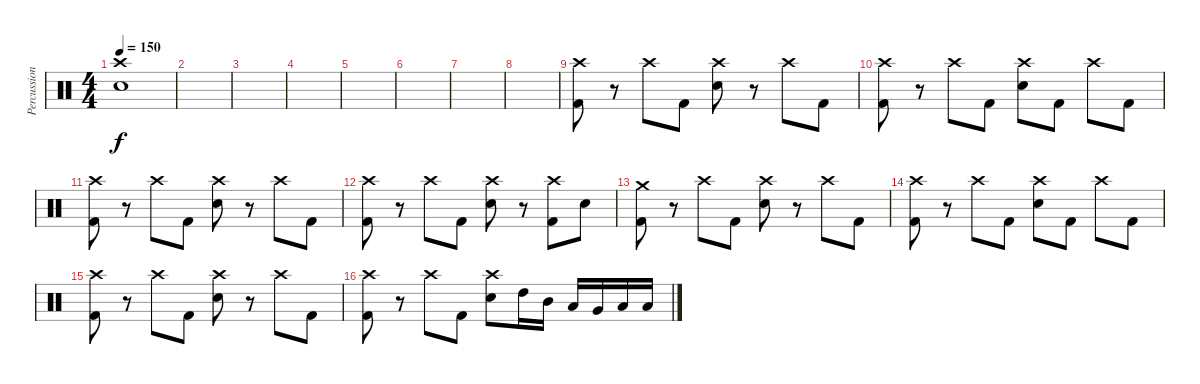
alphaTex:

\track ("Percussion" "Percussion") {instrument percussion}
\staff {score}
\articulation defaults
\ts (4 4)
\tempo 150
\clef neutral
\ks c
("Crash high (hit)" "Snare (hit) 2").1{dy f} |
|
|
|
|
|
|
|
("Crash high (hit)" "Kick (hit) 2").8 r.8 "Crash high (hit)".8 "Kick (hit) 2".8 ("Crash high (hit)" "Snare (hit) 2").8 r.8 "Crash high (hit)".8 "Kick (hit) 2".8 |
("Crash high (hit)" "Kick (hit) 2").8 r.8 "Crash high (hit)".8 "Kick (hit) 2".8 ("Crash high (hit)" "Snare (hit) 2").8 "Kick (hit) 2".8 "Crash high (hit)".8 "Kick (hit) 2".8 |
("Crash high (hit)" "Kick (hit) 2").8 r.8 "Crash high (hit)".8 "Kick (hit) 2".8 ("Crash high (hit)" "Snare (hit) 2").8 r.8 "Crash high (hit)".8 "Kick (hit) 2".8 |
("Crash high (hit)" "Kick (hit) 2").8 r.8 "Crash high (hit)".8 "Kick (hit) 2".8 ("Crash high (hit)" "Snare (hit) 2").8 r.8 ("Crash high (hit)" "Kick (hit) 2").8 "Snare (hit) 2".8 |
("Crash medium (hit)" "Kick (hit) 2").8 r.8 "Crash high (hit)".8 "Kick (hit) 2".8 ("Crash high (hit)" "Snare (hit) 2").8 r.8 "Crash high (hit)".8 "Kick (hit) 2".8 |
("Crash high (hit)" "Kick (hit) 2").8 r.8 "Crash high (hit)".8 "Kick (hit) 2".8 ("Crash high (hit)" "Snare (hit) 2").8 "Kick (hit) 2".8 "Crash high (hit)".8 "Kick (hit) 2".8 |
("Crash high (hit)" "Kick (hit) 2").8 r.8 "Crash high (hit)".8 "Kick (hit) 2".8 ("Crash high (hit)" "Snare (hit) 2").8 r.8 "Crash high (hit)".8 "Kick (hit) 2".8 |
("Crash high (hit)" "Kick (hit) 2").8 r.8 "Crash high (hit)".8 "Kick (hit) 2".8 ("Crash high (hit)" "Snare (hit) 2").8 "High Tom (hit)".16 "Mid Tom (hit)".16 "Low Tom (hit)".16 "Very Low Tom (hit)".16 "Low Tom (hit)".16 "Low Floor Tom (hit)".16
